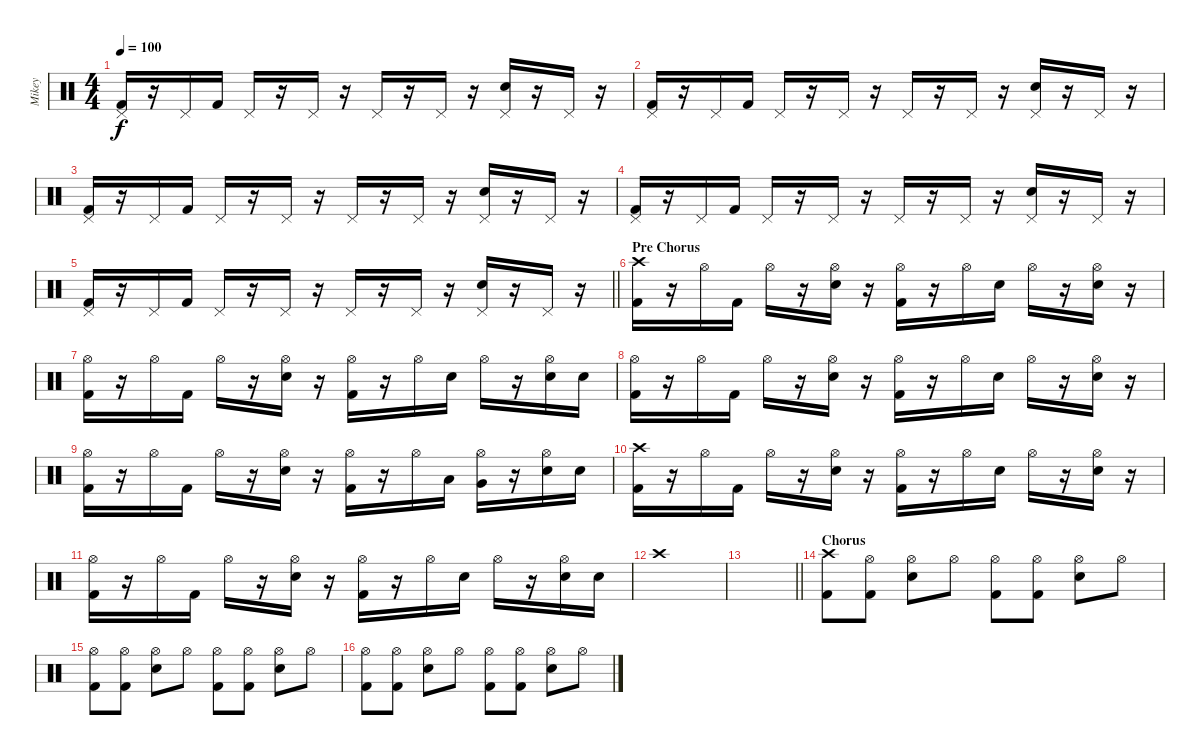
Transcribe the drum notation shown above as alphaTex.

\track ("Mikey" "Mikey") {instrument percussion}
\staff {score}
\articulation defaults
\ts (4 4)
\tempo 100
\clef neutral
\ks c
("Pedal Hi-Hat (hit)" "Kick (hit) 2").16{dy f} r.16 "Pedal Hi-Hat (hit)".16 "Kick (hit) 2".16 "Pedal Hi-Hat (hit)".16 r.16 "Pedal Hi-Hat (hit)".16 r.16 "Pedal Hi-Hat (hit)".16 r.16 "Pedal Hi-Hat (hit)".16 r.16 ("Pedal Hi-Hat (hit)" "Snare (hit) 2").16 r.16 "Pedal Hi-Hat (hit)".16 r.16 |
("Pedal Hi-Hat (hit)" "Kick (hit) 2").16 r.16 "Pedal Hi-Hat (hit)".16 "Kick (hit) 2".16 "Pedal Hi-Hat (hit)".16 r.16 "Pedal Hi-Hat (hit)".16 r.16 "Pedal Hi-Hat (hit)".16 r.16 "Pedal Hi-Hat (hit)".16 r.16 ("Pedal Hi-Hat (hit)" "Snare (hit) 2").16 r.16 "Pedal Hi-Hat (hit)".16 r.16 |
("Pedal Hi-Hat (hit)" "Kick (hit) 2").16 r.16 "Pedal Hi-Hat (hit)".16 "Kick (hit) 2".16 "Pedal Hi-Hat (hit)".16 r.16 "Pedal Hi-Hat (hit)".16 r.16 "Pedal Hi-Hat (hit)".16 r.16 "Pedal Hi-Hat (hit)".16 r.16 ("Pedal Hi-Hat (hit)" "Snare (hit) 2").16 r.16 "Pedal Hi-Hat (hit)".16 r.16 |
("Pedal Hi-Hat (hit)" "Kick (hit) 2").16 r.16 "Pedal Hi-Hat (hit)".16 "Kick (hit) 2".16 "Pedal Hi-Hat (hit)".16 r.16 "Pedal Hi-Hat (hit)".16 r.16 "Pedal Hi-Hat (hit)".16 r.16 "Pedal Hi-Hat (hit)".16 r.16 ("Pedal Hi-Hat (hit)" "Snare (hit) 2").16 r.16 "Pedal Hi-Hat (hit)".16 r.16 |
\barLineRight lightlight
("Pedal Hi-Hat (hit)" "Kick (hit) 2").16 r.16 "Pedal Hi-Hat (hit)".16 "Kick (hit) 2".16 "Pedal Hi-Hat (hit)".16 r.16 "Pedal Hi-Hat (hit)".16 r.16 "Pedal Hi-Hat (hit)".16 r.16 "Pedal Hi-Hat (hit)".16 r.16 ("Pedal Hi-Hat (hit)" "Snare (hit) 2").16 r.16 "Pedal Hi-Hat (hit)".16 r.16 |
\section ("" "Pre Chorus")
("Crash high (hit)" "Kick (hit) 2").16 r.16 "Hi-Hat (open)".16 "Kick (hit) 2".16 "Hi-Hat (open)".16 r.16 ("Hi-Hat (open)" "Snare (hit) 2").16 r.16 ("Hi-Hat (open)" "Kick (hit) 2").16 r.16 "Hi-Hat (open)".16 "Snare (hit) 2".16 "Hi-Hat (open)".16 r.16 ("Hi-Hat (open)" "Snare (hit) 2").16 r.16 |
("Hi-Hat (open)" "Kick (hit) 2").16 r.16 "Hi-Hat (open)".16 "Kick (hit) 2".16 "Hi-Hat (open)".16 r.16 ("Hi-Hat (open)" "Snare (hit) 2").16 r.16 ("Hi-Hat (open)" "Kick (hit) 2").16 r.16 "Hi-Hat (open)".16 "Snare (hit) 2".16 "Hi-Hat (open)".16 r.16 ("Hi-Hat (open)" "Snare (hit) 2").16 "Snare (hit) 2".16 |
("Hi-Hat (open)" "Kick (hit) 2").16 r.16 "Hi-Hat (open)".16 "Kick (hit) 2".16 "Hi-Hat (open)".16 r.16 ("Hi-Hat (open)" "Snare (hit) 2").16 r.16 ("Hi-Hat (open)" "Kick (hit) 2").16 r.16 "Hi-Hat (open)".16 "Snare (hit) 2".16 "Hi-Hat (open)".16 r.16 ("Hi-Hat (open)" "Snare (hit) 2").16 r.16 |
("Hi-Hat (open)" "Kick (hit) 2").16 r.16 "Hi-Hat (open)".16 "Kick (hit) 2".16 "Hi-Hat (open)".16 r.16 ("Hi-Hat (open)" "Snare (hit) 2").16 r.16 ("Hi-Hat (open)" "Kick (hit) 2").16 r.16 "Hi-Hat (open)".16 "Low Tom (hit)".16 ("Hi-Hat (open)" "Very Low Tom (hit)").16 r.16 ("Hi-Hat (open)" "Snare (hit) 2").16 "Snare (hit) 2".16 |
("Crash high (hit)" "Kick (hit) 2").16 r.16 "Hi-Hat (open)".16 "Kick (hit) 2".16 "Hi-Hat (open)".16 r.16 ("Hi-Hat (open)" "Snare (hit) 2").16 r.16 ("Hi-Hat (open)" "Kick (hit) 2").16 r.16 "Hi-Hat (open)".16 "Snare (hit) 2".16 "Hi-Hat (open)".16 r.16 ("Hi-Hat (open)" "Snare (hit) 2").16 r.16 |
("Hi-Hat (open)" "Kick (hit) 2").16 r.16 "Hi-Hat (open)".16 "Kick (hit) 2".16 "Hi-Hat (open)".16 r.16 ("Hi-Hat (open)" "Snare (hit) 2").16 r.16 ("Hi-Hat (open)" "Kick (hit) 2").16 r.16 "Hi-Hat (open)".16 "Snare (hit) 2".16 "Hi-Hat (open)".16 r.16 ("Hi-Hat (open)" "Snare (hit) 2").16 "Snare (hit) 2".16 |
"Crash high (hit)".1 |
\barLineRight lightlight
|
\section ("" "Chorus")
("Crash high (hit)" "Kick (hit) 2").8 ("Hi-Hat (open)" "Kick (hit) 2").8 ("Hi-Hat (open)" "Snare (hit) 2").8 "Hi-Hat (open)".8 ("Hi-Hat (open)" "Kick (hit) 2").8 ("Hi-Hat (open)" "Kick (hit) 2").8 ("Hi-Hat (open)" "Snare (hit) 2").8 "Hi-Hat (open)".8 |
("Hi-Hat (open)" "Kick (hit) 2").8 ("Hi-Hat (open)" "Kick (hit) 2").8 ("Hi-Hat (open)" "Snare (hit) 2").8 "Hi-Hat (open)".8 ("Hi-Hat (open)" "Kick (hit) 2").8 ("Hi-Hat (open)" "Kick (hit) 2").8 ("Hi-Hat (open)" "Snare (hit) 2").8 "Hi-Hat (open)".8 |
("Hi-Hat (open)" "Kick (hit) 2").8 ("Hi-Hat (open)" "Kick (hit) 2").8 ("Hi-Hat (open)" "Snare (hit) 2").8 "Hi-Hat (open)".8 ("Hi-Hat (open)" "Kick (hit) 2").8 ("Hi-Hat (open)" "Kick (hit) 2").8 ("Hi-Hat (open)" "Snare (hit) 2").8 "Hi-Hat (open)".8
